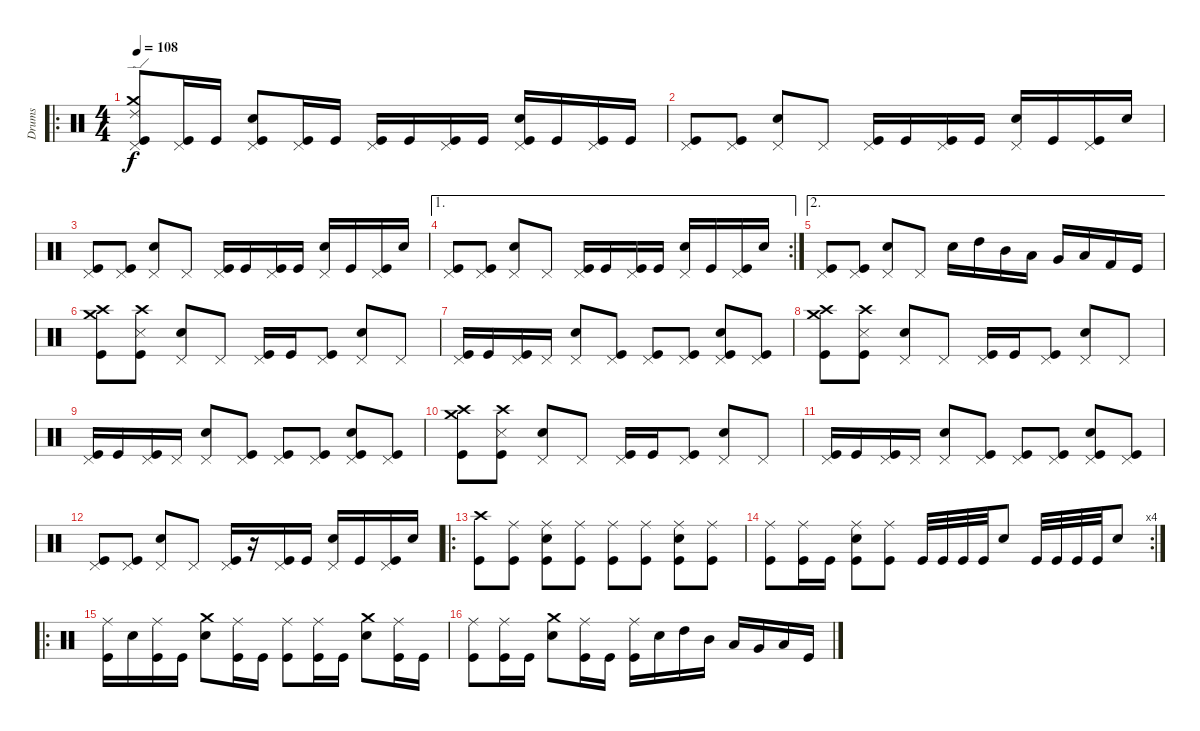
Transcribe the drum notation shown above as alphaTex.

\track ("Drums" "Drums") {instrument percussion}
\staff {score}
\articulation defaults
\ro
\ts (4 4)
\tempo 108
\clef neutral
\ks c
("Pedal Hi-Hat (hit)" "Crash medium (hit)" "Ride (edge) 2" "Kick (hit)").8{dy f} ("Pedal Hi-Hat (hit)" "Kick (hit)").16 "Kick (hit)".16 ("Pedal Hi-Hat (hit)" "Electric Snare (hit)" "Kick (hit)").8 ("Pedal Hi-Hat (hit)" "Kick (hit)").16 "Kick (hit)".16 ("Pedal Hi-Hat (hit)" "Kick (hit)").16 "Kick (hit)".16 ("Pedal Hi-Hat (hit)" "Kick (hit)").16 "Kick (hit)".16 ("Pedal Hi-Hat (hit)" "Electric Snare (hit)" "Kick (hit)").16 "Kick (hit)".16 ("Pedal Hi-Hat (hit)" "Kick (hit)").16 "Kick (hit)".16 |
("Pedal Hi-Hat (hit)" "Kick (hit)").8 ("Pedal Hi-Hat (hit)" "Kick (hit)").8 ("Pedal Hi-Hat (hit)" "Electric Snare (hit)").8 "Pedal Hi-Hat (hit)".8 ("Pedal Hi-Hat (hit)" "Kick (hit)").16 "Kick (hit)".16 ("Pedal Hi-Hat (hit)" "Kick (hit)").16 "Kick (hit)".16 ("Pedal Hi-Hat (hit)" "Electric Snare (hit)").16 "Kick (hit)".16 ("Pedal Hi-Hat (hit)" "Kick (hit)").16 "Electric Snare (hit)".16 |
("Pedal Hi-Hat (hit)" "Kick (hit)").8 ("Pedal Hi-Hat (hit)" "Kick (hit)").8 ("Pedal Hi-Hat (hit)" "Electric Snare (hit)").8 "Pedal Hi-Hat (hit)".8 ("Pedal Hi-Hat (hit)" "Kick (hit)").16 "Kick (hit)".16 ("Pedal Hi-Hat (hit)" "Kick (hit)").16 "Kick (hit)".16 ("Pedal Hi-Hat (hit)" "Electric Snare (hit)").16 "Kick (hit)".16 ("Pedal Hi-Hat (hit)" "Kick (hit)").16 "Electric Snare (hit)".16 |
\ae 1
\rc 2
("Pedal Hi-Hat (hit)" "Kick (hit)").8 ("Pedal Hi-Hat (hit)" "Kick (hit)").8 ("Pedal Hi-Hat (hit)" "Electric Snare (hit)").8 "Pedal Hi-Hat (hit)".8 ("Pedal Hi-Hat (hit)" "Kick (hit)").16 "Kick (hit)".16 ("Pedal Hi-Hat (hit)" "Kick (hit)").16 "Kick (hit)".16 ("Pedal Hi-Hat (hit)" "Electric Snare (hit)").16 "Kick (hit)".16 ("Pedal Hi-Hat (hit)" "Kick (hit)").16 "Electric Snare (hit)".16 |
\ae 2
("Pedal Hi-Hat (hit)" "Kick (hit)").8 ("Pedal Hi-Hat (hit)" "Kick (hit)").8 ("Pedal Hi-Hat (hit)" "Electric Snare (hit)").8 "Pedal Hi-Hat (hit)".8 "Electric Snare (hit)".16 "High Tom (hit)".16 "Mid Tom (hit)".16 "Low Tom (hit)".16 "Very Low Tom (hit)".16 "Low Floor Tom (hit)".16 "Kick (hit) 2".16 "Kick (hit)".16 |
("Crash high (hit)" "Crash medium (hit)" "Kick (hit)").8 ("Crash high (hit)" "Metronome (hit)" "Kick (hit)").8 ("Pedal Hi-Hat (hit)" "Electric Snare (hit)").8 "Pedal Hi-Hat (hit)".8 ("Pedal Hi-Hat (hit)" "Kick (hit)").16 "Kick (hit)".16 ("Pedal Hi-Hat (hit)" "Kick (hit)").8 ("Pedal Hi-Hat (hit)" "Electric Snare (hit)").8 "Pedal Hi-Hat (hit)".8 |
("Pedal Hi-Hat (hit)" "Kick (hit)").16 "Kick (hit)".16 ("Pedal Hi-Hat (hit)" "Kick (hit)").16 "Pedal Hi-Hat (hit)".16 ("Pedal Hi-Hat (hit)" "Electric Snare (hit)").8 ("Pedal Hi-Hat (hit)" "Kick (hit)").8 ("Pedal Hi-Hat (hit)" "Kick (hit)").8 ("Pedal Hi-Hat (hit)" "Kick (hit)").8 ("Pedal Hi-Hat (hit)" "Electric Snare (hit)" "Kick (hit)").8 ("Pedal Hi-Hat (hit)" "Kick (hit)").8 |
("Crash high (hit)" "Crash medium (hit)" "Kick (hit)").8 ("Crash high (hit)" "Metronome (hit)" "Kick (hit)").8 ("Pedal Hi-Hat (hit)" "Electric Snare (hit)").8 "Pedal Hi-Hat (hit)".8 ("Pedal Hi-Hat (hit)" "Kick (hit)").16 "Kick (hit)".16 ("Pedal Hi-Hat (hit)" "Kick (hit)").8 ("Pedal Hi-Hat (hit)" "Electric Snare (hit)").8 "Pedal Hi-Hat (hit)".8 |
("Pedal Hi-Hat (hit)" "Kick (hit)").16 "Kick (hit)".16 ("Pedal Hi-Hat (hit)" "Kick (hit)").16 "Pedal Hi-Hat (hit)".16 ("Pedal Hi-Hat (hit)" "Electric Snare (hit)").8 ("Pedal Hi-Hat (hit)" "Kick (hit)").8 ("Pedal Hi-Hat (hit)" "Kick (hit)").8 ("Pedal Hi-Hat (hit)" "Kick (hit)").8 ("Pedal Hi-Hat (hit)" "Electric Snare (hit)" "Kick (hit)").8 ("Pedal Hi-Hat (hit)" "Kick (hit)").8 |
("Crash high (hit)" "Crash medium (hit)" "Kick (hit)").8 ("Crash high (hit)" "Metronome (hit)" "Kick (hit)").8 ("Pedal Hi-Hat (hit)" "Electric Snare (hit)").8 "Pedal Hi-Hat (hit)".8 ("Pedal Hi-Hat (hit)" "Kick (hit)").16 "Kick (hit)".16 ("Pedal Hi-Hat (hit)" "Kick (hit)").8 ("Pedal Hi-Hat (hit)" "Electric Snare (hit)").8 "Pedal Hi-Hat (hit)".8 |
("Pedal Hi-Hat (hit)" "Kick (hit)").16 "Kick (hit)".16 ("Pedal Hi-Hat (hit)" "Kick (hit)").16 "Pedal Hi-Hat (hit)".16 ("Pedal Hi-Hat (hit)" "Electric Snare (hit)").8 ("Pedal Hi-Hat (hit)" "Kick (hit)").8 ("Pedal Hi-Hat (hit)" "Kick (hit)").8 ("Pedal Hi-Hat (hit)" "Kick (hit)").8 ("Pedal Hi-Hat (hit)" "Electric Snare (hit)" "Kick (hit)").8 ("Pedal Hi-Hat (hit)" "Kick (hit)").8 |
("Pedal Hi-Hat (hit)" "Kick (hit)").8 ("Pedal Hi-Hat (hit)" "Kick (hit)").8 ("Pedal Hi-Hat (hit)" "Electric Snare (hit)").8 "Pedal Hi-Hat (hit)".8 ("Pedal Hi-Hat (hit)" "Kick (hit)").16 r.16 ("Pedal Hi-Hat (hit)" "Kick (hit)").16 "Kick (hit)".16 ("Pedal Hi-Hat (hit)" "Electric Snare (hit)").16 "Kick (hit)".16 ("Pedal Hi-Hat (hit)" "Kick (hit)").16 "Electric Snare (hit)".16 |
\ro
("Crash high (hit)" "Kick (hit)").8 ("Ride (middle)" "Kick (hit)").8 ("Ride (middle)" "Electric Snare (hit)" "Kick (hit)").8 ("Ride (middle)" "Kick (hit)").8 ("Ride (middle)" "Kick (hit)").8 ("Ride (middle)" "Kick (hit)").8 ("Ride (middle)" "Electric Snare (hit)" "Kick (hit)").8 ("Ride (middle)" "Kick (hit)").8 |
\rc 4
("Ride (middle)" "Kick (hit)").8 ("Ride (middle)" "Kick (hit)").16 "Kick (hit)".16 ("Ride (middle)" "Electric Snare (hit)" "Kick (hit)").8 ("Ride (middle)" "Kick (hit)").8 "Kick (hit)".32 "Kick (hit)".32 "Kick (hit)".32 "Kick (hit)".32 "Electric Snare (hit)".8 "Kick (hit)".32 "Kick (hit)".32 "Kick (hit)".32 "Kick (hit)".32 "Electric Snare (hit)".8 |
\ro
("Ride (middle)" "Kick (hit)").16 "Electric Snare (hit)".16 ("Ride (middle)" "Kick (hit)").16 "Kick (hit)".16 ("Crash medium (hit)" "Electric Snare (hit)").8 ("Ride (middle)" "Kick (hit)").16 "Kick (hit)".16 ("Ride (middle)" "Kick (hit)").8 ("Ride (middle)" "Kick (hit)").16 "Kick (hit)".16 ("Crash medium (hit)" "Electric Snare (hit)").8 ("Ride (middle)" "Kick (hit)").16 "Kick (hit)".16 |
("Ride (middle)" "Kick (hit)").8 ("Ride (middle)" "Kick (hit)").16 "Kick (hit)".16 ("Crash medium (hit)" "Electric Snare (hit)").8 ("Ride (middle)" "Kick (hit)").16 "Kick (hit)".16 ("Ride (middle)" "Kick (hit)").16 "Electric Snare (hit)".16 "High Tom (hit)".16 "Mid Tom (hit)".16 "Low Tom (hit)".16 "Very Low Tom (hit)".16 "Low Floor Tom (hit)".16 "Kick (hit)".16
